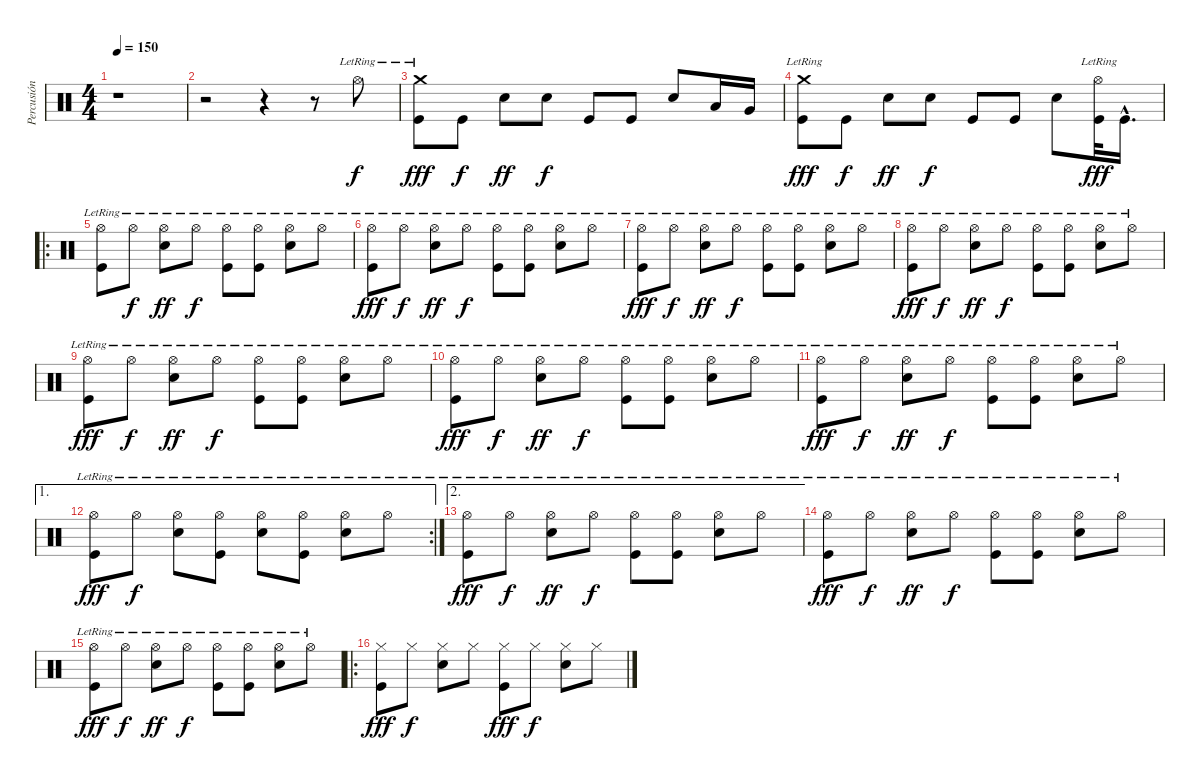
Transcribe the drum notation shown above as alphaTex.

\track ("Percusión" "Percusión") {instrument percussion}
\staff {score}
\articulation defaults
\ts (4 4)
\tempo 150
\clef neutral
\ks c
r.1{dy f} |
r.2 r.4 r.8 "Hi-Hat (open)"{lr}.8 |
("Kick (hit)" "Crash medium (hit)"{lr}).8{dy fff} "Kick (hit)".8{dy f} "Snare (hit) 2".8{dy ff} "Snare (hit) 2".8{dy f} "Kick (hit)".8 "Kick (hit)".8 "Snare (hit) 2".8 "Low Tom (hit)".16 "Very Low Tom (hit)".16 |
("Kick (hit)" "Crash medium (hit)"{lr}).8{dy fff} "Kick (hit)".8{dy f} "Snare (hit) 2".8{dy ff} "Snare (hit) 2".8{dy f} "Kick (hit)".8 "Kick (hit)".8 "Snare (hit) 2".8 ("Kick (hit)" "Hi-Hat (open)"{lr}).32{dy fff} "Kick (hit)"{hac}.16{d} |
\ro
("Kick (hit)" "Hi-Hat (open)"{lr}).8 "Hi-Hat (open)"{lr}.8{dy f} ("Snare (hit) 2" "Hi-Hat (open)"{lr}).8{dy ff} "Hi-Hat (open)"{lr}.8{dy f} ("Kick (hit)" "Hi-Hat (open)"{lr}).8 ("Kick (hit)" "Hi-Hat (open)"{lr}).8 ("Snare (hit) 2" "Hi-Hat (open)"{lr}).8 "Hi-Hat (open)"{lr}.8 |
("Kick (hit)" "Hi-Hat (open)"{lr}).8{dy fff} "Hi-Hat (open)"{lr}.8{dy f} ("Snare (hit) 2" "Hi-Hat (open)"{lr}).8{dy ff} "Hi-Hat (open)"{lr}.8{dy f} ("Kick (hit)" "Hi-Hat (open)"{lr}).8 ("Kick (hit)" "Hi-Hat (open)"{lr}).8 ("Snare (hit) 2" "Hi-Hat (open)"{lr}).8 "Hi-Hat (open)"{lr}.8 |
("Kick (hit)" "Hi-Hat (open)"{lr}).8{dy fff} "Hi-Hat (open)"{lr}.8{dy f} ("Snare (hit) 2" "Hi-Hat (open)"{lr}).8{dy ff} "Hi-Hat (open)"{lr}.8{dy f} ("Kick (hit)" "Hi-Hat (open)"{lr}).8 ("Kick (hit)" "Hi-Hat (open)"{lr}).8 ("Snare (hit) 2" "Hi-Hat (open)"{lr}).8 "Hi-Hat (open)"{lr}.8 |
("Kick (hit)" "Hi-Hat (open)"{lr}).8{dy fff} "Hi-Hat (open)"{lr}.8{dy f} ("Snare (hit) 2" "Hi-Hat (open)"{lr}).8{dy ff} "Hi-Hat (open)"{lr}.8{dy f} ("Kick (hit)" "Hi-Hat (open)"{lr}).8 ("Kick (hit)" "Hi-Hat (open)"{lr}).8 ("Snare (hit) 2" "Hi-Hat (open)"{lr}).8 "Hi-Hat (open)"{lr}.8 |
("Kick (hit)" "Hi-Hat (open)"{lr}).8{dy fff} "Hi-Hat (open)"{lr}.8{dy f} ("Snare (hit) 2" "Hi-Hat (open)"{lr}).8{dy ff} "Hi-Hat (open)"{lr}.8{dy f} ("Kick (hit)" "Hi-Hat (open)"{lr}).8 ("Kick (hit)" "Hi-Hat (open)"{lr}).8 ("Snare (hit) 2" "Hi-Hat (open)"{lr}).8 "Hi-Hat (open)"{lr}.8 |
("Kick (hit)" "Hi-Hat (open)"{lr}).8{dy fff} "Hi-Hat (open)"{lr}.8{dy f} ("Snare (hit) 2" "Hi-Hat (open)"{lr}).8{dy ff} "Hi-Hat (open)"{lr}.8{dy f} ("Kick (hit)" "Hi-Hat (open)"{lr}).8 ("Kick (hit)" "Hi-Hat (open)"{lr}).8 ("Snare (hit) 2" "Hi-Hat (open)"{lr}).8 "Hi-Hat (open)"{lr}.8 |
("Kick (hit)" "Hi-Hat (open)"{lr}).8{dy fff} "Hi-Hat (open)"{lr}.8{dy f} ("Snare (hit) 2" "Hi-Hat (open)"{lr}).8{dy ff} "Hi-Hat (open)"{lr}.8{dy f} ("Kick (hit)" "Hi-Hat (open)"{lr}).8 ("Kick (hit)" "Hi-Hat (open)"{lr}).8 ("Snare (hit) 2" "Hi-Hat (open)"{lr}).8 "Hi-Hat (open)"{lr}.8 |
\ae 1
\rc 2
("Kick (hit)" "Hi-Hat (open)"{lr}).8{dy fff} "Hi-Hat (open)"{lr}.8{dy f} ("Snare (hit) 2" "Hi-Hat (open)"{lr}).8 ("Kick (hit)" "Hi-Hat (open)"{lr}).8 ("Snare (hit) 2" "Hi-Hat (open)"{lr}).8 ("Kick (hit)" "Hi-Hat (open)"{lr}).8 ("Snare (hit) 2" "Hi-Hat (open)"{lr}).8 "Hi-Hat (open)"{lr}.8 |
\ae 2
("Kick (hit)" "Hi-Hat (open)"{lr}).8{dy fff} "Hi-Hat (open)"{lr}.8{dy f} ("Snare (hit) 2" "Hi-Hat (open)"{lr}).8{dy ff} "Hi-Hat (open)"{lr}.8{dy f} ("Kick (hit)" "Hi-Hat (open)"{lr}).8 ("Kick (hit)" "Hi-Hat (open)"{lr}).8 ("Snare (hit) 2" "Hi-Hat (open)"{lr}).8 "Hi-Hat (open)"{lr}.8 |
("Kick (hit)" "Hi-Hat (open)"{lr}).8{dy fff} "Hi-Hat (open)"{lr}.8{dy f} ("Snare (hit) 2" "Hi-Hat (open)"{lr}).8{dy ff} "Hi-Hat (open)"{lr}.8{dy f} ("Kick (hit)" "Hi-Hat (open)"{lr}).8 ("Kick (hit)" "Hi-Hat (open)"{lr}).8 ("Snare (hit) 2" "Hi-Hat (open)"{lr}).8 "Hi-Hat (open)"{lr}.8 |
("Kick (hit)" "Hi-Hat (open)"{lr}).8{dy fff} "Hi-Hat (open)"{lr}.8{dy f} ("Snare (hit) 2" "Hi-Hat (open)"{lr}).8{dy ff} "Hi-Hat (open)"{lr}.8{dy f} ("Kick (hit)" "Hi-Hat (open)"{lr}).8 ("Kick (hit)" "Hi-Hat (open)"{lr}).8 ("Snare (hit) 2" "Hi-Hat (open)"{lr}).8 "Hi-Hat (open)"{lr}.8 |
\ro
("Kick (hit)" "Hi-Hat (closed)").8{dy fff} "Hi-Hat (closed)".8{dy f} ("Snare (hit) 2" "Hi-Hat (closed)").8 "Hi-Hat (closed)".8 ("Kick (hit)" "Hi-Hat (closed)").8{dy fff} "Hi-Hat (closed)".8{dy f} ("Snare (hit) 2" "Hi-Hat (closed)").8 "Hi-Hat (closed)".8
